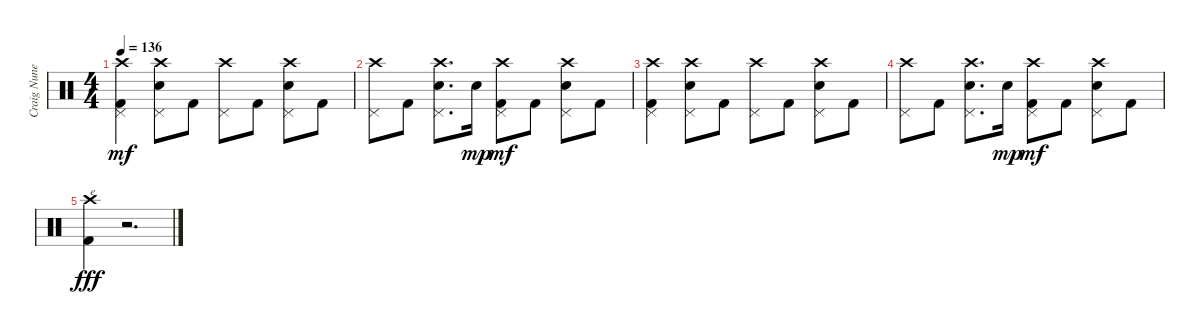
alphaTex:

\track ("Craig Nunenmancher" "Craig Nune") {instrument percussion}
\staff {score}
\articulation defaults
\ts (4 4)
\tempo 136
\clef neutral
\ks c
("Crash high (hit)" "Pedal Hi-Hat (hit)" "Kick (hit) 2").4{dy mf} ("Crash high (hit)" "Pedal Hi-Hat (hit)" "Snare (hit) 2").8 "Kick (hit) 2".8 ("Crash high (hit)" "Pedal Hi-Hat (hit)").8 "Kick (hit) 2".8 ("Crash high (hit)" "Pedal Hi-Hat (hit)" "Snare (hit) 2").8 "Kick (hit) 2".8 |
("Crash high (hit)" "Pedal Hi-Hat (hit)").8 "Kick (hit) 2".8 ("Crash high (hit)" "Pedal Hi-Hat (hit)" "Snare (hit) 2").8{d} "Snare (hit) 2".16{dy mp} ("Crash high (hit)" "Pedal Hi-Hat (hit)" "Kick (hit) 2").8{dy mf} "Kick (hit) 2".8 ("Crash high (hit)" "Pedal Hi-Hat (hit)" "Snare (hit) 2").8 "Kick (hit) 2".8 |
("Crash high (hit)" "Pedal Hi-Hat (hit)" "Kick (hit) 2").4 ("Crash high (hit)" "Pedal Hi-Hat (hit)" "Snare (hit) 2").8 "Kick (hit) 2".8 ("Crash high (hit)" "Pedal Hi-Hat (hit)").8 "Kick (hit) 2".8 ("Crash high (hit)" "Pedal Hi-Hat (hit)" "Snare (hit) 2").8 "Kick (hit) 2".8 |
("Crash high (hit)" "Pedal Hi-Hat (hit)").8 "Kick (hit) 2".8 ("Crash high (hit)" "Pedal Hi-Hat (hit)" "Snare (hit) 2").8{d} "Snare (hit) 2".16{dy mp} ("Crash high (hit)" "Pedal Hi-Hat (hit)" "Kick (hit) 2").8{dy mf} "Kick (hit) 2".8 ("Crash high (hit)" "Pedal Hi-Hat (hit)" "Snare (hit) 2").8 "Kick (hit) 2".8 |
("Crash high (hit)" "Kick (hit) 2").4{txt "e" dy fff} r.2{d}
